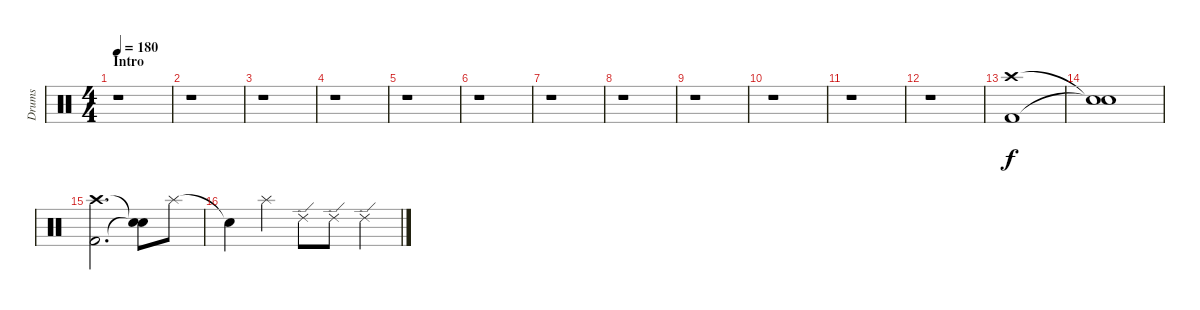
\track ("Drums " "Drums ") {instrument percussion}
\staff {score}
\articulation defaults
\ts (4 4)
\section ("" "Intro")
\tempo 180
\clef neutral
\ks c
r.1{dy f} |
r.1 |
r.1 |
r.1 |
r.1 |
r.1 |
r.1 |
r.1 |
r.1 |
r.1 |
r.1 |
r.1 |
("Kick (hit) 2" "Crash high (hit)").1 |
("Snare (hit)"{t} "Snare (hit)"{t}).1 |
("Kick (hit) 2" "Crash high (hit)").2{d} ("Snare (hit)"{t} "Snare (hit)"{t}).8 "Splash (hit)".8 |
"Snare (hit)"{t}.4 "Splash (hit)".4 "Ride (edge) 2".8 "Ride (edge) 2".8 "Ride (edge) 2".4
